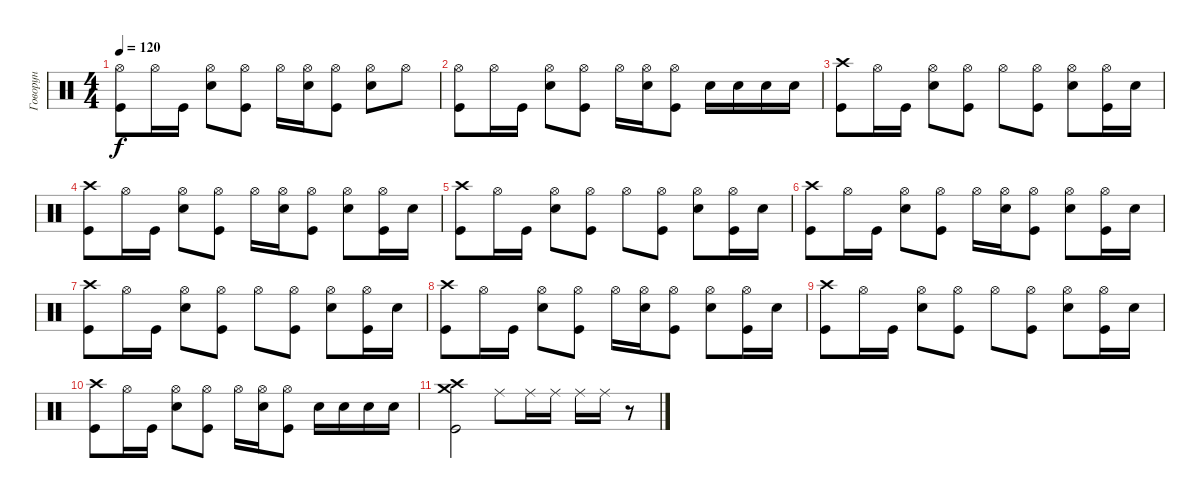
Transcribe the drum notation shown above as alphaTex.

\track ("Говорун" "Говорун") {instrument percussion}
\staff {score}
\articulation defaults
\ts (4 4)
\tempo 120
\clef neutral
\ks c
("Hi-Hat (open)" "Kick (hit)").8{dy f} "Hi-Hat (open)".16 "Kick (hit)".16 ("Hi-Hat (open)" "Snare (hit) 2").8 ("Hi-Hat (open)" "Kick (hit)").8 "Hi-Hat (open)".16 ("Hi-Hat (open)" "Snare (hit) 2").16 ("Hi-Hat (open)" "Kick (hit)").8 ("Hi-Hat (open)" "Snare (hit) 2").8 "Hi-Hat (open)".8 |
("Hi-Hat (open)" "Kick (hit)").8 "Hi-Hat (open)".16 "Kick (hit)".16 ("Hi-Hat (open)" "Snare (hit) 2").8 ("Hi-Hat (open)" "Kick (hit)").8 "Hi-Hat (open)".16 ("Hi-Hat (open)" "Snare (hit) 2").16 ("Hi-Hat (open)" "Kick (hit)").8 "Snare (hit) 2".16 "Snare (hit) 2".16 "Snare (hit) 2".16 "Snare (hit) 2".16 |
("Crash high (hit)" "Kick (hit)").8 "Hi-Hat (open)".16 "Kick (hit)".16 ("Hi-Hat (open)" "Snare (hit) 2").8 ("Hi-Hat (open)" "Kick (hit)").8 "Hi-Hat (open)".8 ("Hi-Hat (open)" "Kick (hit)").8 ("Hi-Hat (open)" "Snare (hit) 2").8 ("Hi-Hat (open)" "Kick (hit)").16 "Snare (hit) 2".16 |
("Crash high (hit)" "Kick (hit)").8 "Hi-Hat (open)".16 "Kick (hit)".16 ("Hi-Hat (open)" "Snare (hit) 2").8 ("Hi-Hat (open)" "Kick (hit)").8 "Hi-Hat (open)".16 ("Hi-Hat (open)" "Snare (hit) 2").16 ("Hi-Hat (open)" "Kick (hit)").8 ("Hi-Hat (open)" "Snare (hit) 2").8 ("Hi-Hat (open)" "Kick (hit)").16 "Snare (hit) 2".16 |
("Crash high (hit)" "Kick (hit)").8 "Hi-Hat (open)".16 "Kick (hit)".16 ("Hi-Hat (open)" "Snare (hit) 2").8 ("Hi-Hat (open)" "Kick (hit)").8 "Hi-Hat (open)".8 ("Hi-Hat (open)" "Kick (hit)").8 ("Hi-Hat (open)" "Snare (hit) 2").8 ("Hi-Hat (open)" "Kick (hit)").16 "Snare (hit) 2".16 |
("Crash high (hit)" "Kick (hit)").8 "Hi-Hat (open)".16 "Kick (hit)".16 ("Hi-Hat (open)" "Snare (hit) 2").8 ("Hi-Hat (open)" "Kick (hit)").8 "Hi-Hat (open)".16 ("Hi-Hat (open)" "Snare (hit) 2").16 ("Hi-Hat (open)" "Kick (hit)").8 ("Hi-Hat (open)" "Snare (hit) 2").8 ("Hi-Hat (open)" "Kick (hit)").16 "Snare (hit) 2".16 |
("Crash high (hit)" "Kick (hit)").8 "Hi-Hat (open)".16 "Kick (hit)".16 ("Hi-Hat (open)" "Snare (hit) 2").8 ("Hi-Hat (open)" "Kick (hit)").8 "Hi-Hat (open)".8 ("Hi-Hat (open)" "Kick (hit)").8 ("Hi-Hat (open)" "Snare (hit) 2").8 ("Hi-Hat (open)" "Kick (hit)").16 "Snare (hit) 2".16 |
("Crash high (hit)" "Kick (hit)").8 "Hi-Hat (open)".16 "Kick (hit)".16 ("Hi-Hat (open)" "Snare (hit) 2").8 ("Hi-Hat (open)" "Kick (hit)").8 "Hi-Hat (open)".16 ("Hi-Hat (open)" "Snare (hit) 2").16 ("Hi-Hat (open)" "Kick (hit)").8 ("Hi-Hat (open)" "Snare (hit) 2").8 ("Hi-Hat (open)" "Kick (hit)").16 "Snare (hit) 2".16 |
("Crash high (hit)" "Kick (hit)").8 "Hi-Hat (open)".16 "Kick (hit)".16 ("Hi-Hat (open)" "Snare (hit) 2").8 ("Hi-Hat (open)" "Kick (hit)").8 "Hi-Hat (open)".8 ("Hi-Hat (open)" "Kick (hit)").8 ("Hi-Hat (open)" "Snare (hit) 2").8 ("Hi-Hat (open)" "Kick (hit)").16 "Snare (hit) 2".16 |
("Crash high (hit)" "Kick (hit)").8 "Hi-Hat (open)".16 "Kick (hit)".16 ("Hi-Hat (open)" "Snare (hit) 2").8 ("Hi-Hat (open)" "Kick (hit)").8 "Hi-Hat (open)".16 ("Hi-Hat (open)" "Snare (hit) 2").16 ("Hi-Hat (open)" "Kick (hit)").8 "Snare (hit) 2".16 "Snare (hit) 2".16 "Snare (hit) 2".16 "Snare (hit) 2".16 |
("Kick (hit)" "Crash high (hit)" "Crash medium (hit)").2 "Ride (middle)".8 "Ride (middle)".16 "Ride (middle)".16 "Ride (middle)".16 "Ride (middle)".16 r.8
